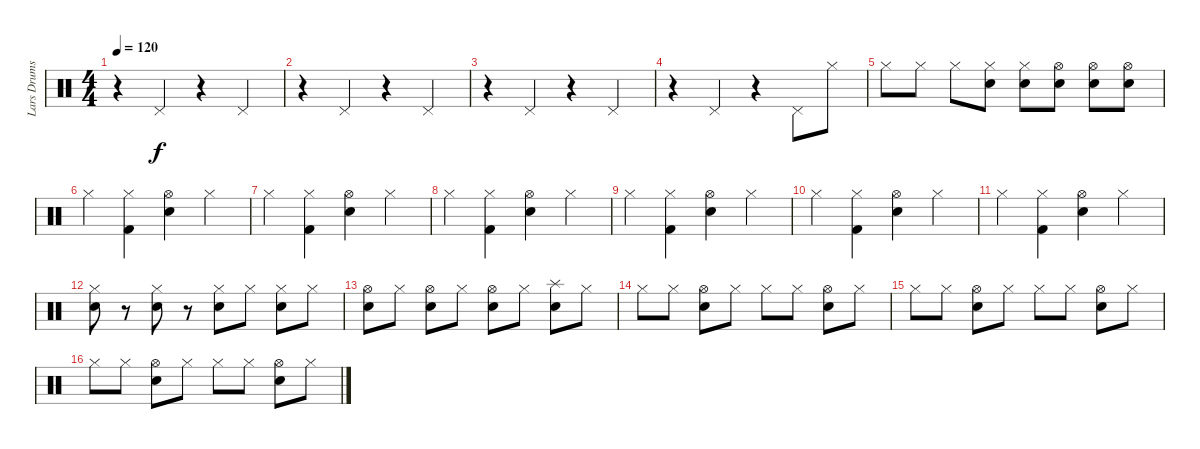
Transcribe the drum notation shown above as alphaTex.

\track ("Lars Drums" "Lars Drums") {instrument percussion}
\staff {score}
\articulation defaults
\ts (4 4)
\tempo 120
\clef neutral
\ks c
r.4{dy f} "Pedal Hi-Hat (hit)".4 r.4 "Pedal Hi-Hat (hit)".4 |
r.4 "Pedal Hi-Hat (hit)".4 r.4 "Pedal Hi-Hat (hit)".4 |
r.4 "Pedal Hi-Hat (hit)".4 r.4 "Pedal Hi-Hat (hit)".4 |
r.4 "Pedal Hi-Hat (hit)".4 r.4 "Pedal Hi-Hat (hit)".8 "Hi-Hat (closed)".8 |
"Hi-Hat (closed)".8 "Hi-Hat (closed)".8 "Hi-Hat (closed)".8 ("Snare (hit) 2" "Hi-Hat (closed)").8 ("Snare (hit) 2" "Hi-Hat (closed)").8 ("Snare (hit) 2" "Hi-Hat (open)").8 ("Snare (hit) 2" "Hi-Hat (open)").8 ("Snare (hit) 2" "Hi-Hat (open)").8 |
"Hi-Hat (closed)".4 ("Hi-Hat (closed)" "Kick (hit) 2").4 ("Snare (hit) 2" "Hi-Hat (open)").4 "Hi-Hat (closed)".4 |
"Hi-Hat (closed)".4 ("Hi-Hat (closed)" "Kick (hit) 2").4 ("Snare (hit) 2" "Hi-Hat (open)").4 "Hi-Hat (closed)".4 |
"Hi-Hat (closed)".4 ("Hi-Hat (closed)" "Kick (hit) 2").4 ("Snare (hit) 2" "Hi-Hat (open)").4 "Hi-Hat (closed)".4 |
"Hi-Hat (closed)".4 ("Hi-Hat (closed)" "Kick (hit) 2").4 ("Snare (hit) 2" "Hi-Hat (open)").4 "Hi-Hat (closed)".4 |
"Hi-Hat (closed)".4 ("Hi-Hat (closed)" "Kick (hit) 2").4 ("Snare (hit) 2" "Hi-Hat (open)").4 "Hi-Hat (closed)".4 |
"Hi-Hat (closed)".4 ("Hi-Hat (closed)" "Kick (hit) 2").4 ("Snare (hit) 2" "Hi-Hat (open)").4 "Hi-Hat (closed)".4 |
("Snare (hit) 2" "Hi-Hat (closed)").8 r.8 ("Snare (hit) 2" "Hi-Hat (closed)").8 r.8 ("Snare (hit) 2" "Hi-Hat (closed)").8 "Hi-Hat (closed)".8 ("Snare (hit) 2" "Hi-Hat (closed)").8 "Hi-Hat (closed)".8 |
("Snare (hit) 2" "Hi-Hat (open)").8 "Hi-Hat (closed)".8 ("Snare (hit) 2" "Hi-Hat (open)").8 "Hi-Hat (closed)".8 ("Snare (hit) 2" "Hi-Hat (open)").8 "Hi-Hat (closed)".8 ("Splash (hit)" "Snare (hit) 2").8 "Hi-Hat (closed)".8 |
"Hi-Hat (closed)".8 "Hi-Hat (closed)".8 ("Snare (hit) 2" "Hi-Hat (open)").8 "Hi-Hat (closed)".8 "Hi-Hat (closed)".8 "Hi-Hat (closed)".8 ("Snare (hit) 2" "Hi-Hat (open)").8 "Hi-Hat (closed)".8 |
"Hi-Hat (closed)".8 "Hi-Hat (closed)".8 ("Snare (hit) 2" "Hi-Hat (open)").8 "Hi-Hat (closed)".8 "Hi-Hat (closed)".8 "Hi-Hat (closed)".8 ("Snare (hit) 2" "Hi-Hat (open)").8 "Hi-Hat (closed)".8 |
"Hi-Hat (closed)".8 "Hi-Hat (closed)".8 ("Snare (hit) 2" "Hi-Hat (open)").8 "Hi-Hat (closed)".8 "Hi-Hat (closed)".8 "Hi-Hat (closed)".8 ("Snare (hit) 2" "Hi-Hat (open)").8 "Hi-Hat (closed)".8
